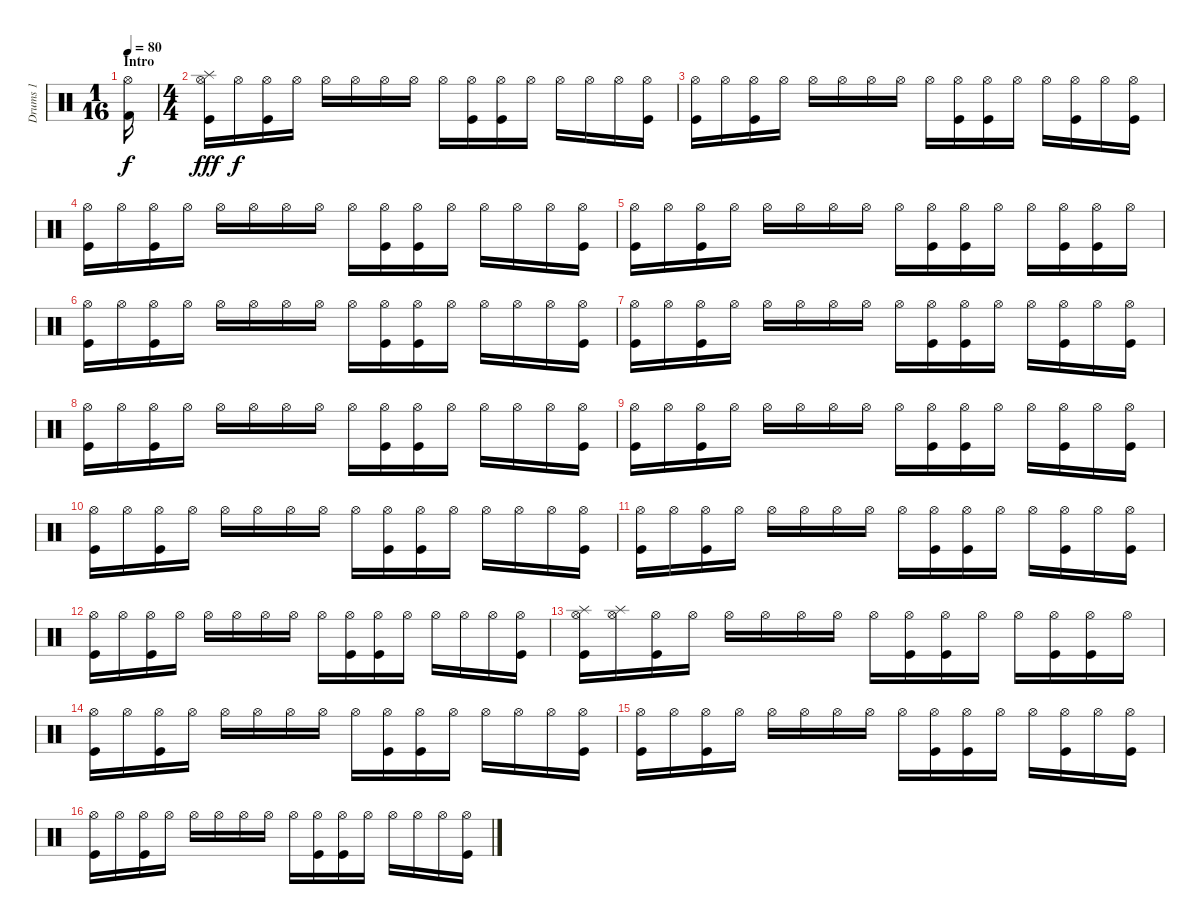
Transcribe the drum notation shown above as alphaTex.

\track ("Drums 1" "Drums 1") {instrument percussion}
\staff {score}
\articulation defaults
\ts (1 16)
\section ("" "Intro")
\tempo 80
\clef neutral
\ks c
("Hi-Hat (open)" "Kick (hit) 2").16{dy f volume 11} |
\ts (4 4)
("Splash (hit)" "Hi-Hat (open)" "Kick (hit)").16{dy fff} "Hi-Hat (open)".16{dy f} ("Hi-Hat (open)" "Kick (hit)").16 "Hi-Hat (open)".16 "Hi-Hat (open)".16 "Hi-Hat (open)".16 "Hi-Hat (open)".16 "Hi-Hat (open)".16 "Hi-Hat (open)".16 ("Hi-Hat (open)" "Kick (hit)").16 ("Hi-Hat (open)" "Kick (hit)").16 "Hi-Hat (open)".16 "Hi-Hat (open)".16 "Hi-Hat (open)".16 "Hi-Hat (open)".16 ("Hi-Hat (open)" "Kick (hit)").16 |
("Hi-Hat (open)" "Kick (hit)").16 "Hi-Hat (open)".16 ("Hi-Hat (open)" "Kick (hit)").16 "Hi-Hat (open)".16 "Hi-Hat (open)".16 "Hi-Hat (open)".16 "Hi-Hat (open)".16 "Hi-Hat (open)".16 "Hi-Hat (open)".16 ("Hi-Hat (open)" "Kick (hit)").16 ("Hi-Hat (open)" "Kick (hit)").16 "Hi-Hat (open)".16 "Hi-Hat (open)".16 ("Hi-Hat (open)" "Kick (hit)").16 "Hi-Hat (open)".16 ("Hi-Hat (open)" "Kick (hit)").16 |
("Hi-Hat (open)" "Kick (hit)").16 "Hi-Hat (open)".16 ("Hi-Hat (open)" "Kick (hit)").16 "Hi-Hat (open)".16 "Hi-Hat (open)".16 "Hi-Hat (open)".16 "Hi-Hat (open)".16 "Hi-Hat (open)".16 "Hi-Hat (open)".16 ("Hi-Hat (open)" "Kick (hit)").16 ("Hi-Hat (open)" "Kick (hit)").16 "Hi-Hat (open)".16 "Hi-Hat (open)".16 "Hi-Hat (open)".16 "Hi-Hat (open)".16 ("Hi-Hat (open)" "Kick (hit)").16 |
("Hi-Hat (open)" "Kick (hit)").16 "Hi-Hat (open)".16 ("Hi-Hat (open)" "Kick (hit)").16 "Hi-Hat (open)".16 "Hi-Hat (open)".16 "Hi-Hat (open)".16 "Hi-Hat (open)".16 "Hi-Hat (open)".16 "Hi-Hat (open)".16 ("Hi-Hat (open)" "Kick (hit)").16 ("Hi-Hat (open)" "Kick (hit)").16 "Hi-Hat (open)".16 "Hi-Hat (open)".16 ("Hi-Hat (open)" "Kick (hit)").16 ("Hi-Hat (open)" "Kick (hit)").16 "Hi-Hat (open)".16 |
("Hi-Hat (open)" "Kick (hit)").16 "Hi-Hat (open)".16 ("Hi-Hat (open)" "Kick (hit)").16 "Hi-Hat (open)".16 "Hi-Hat (open)".16 "Hi-Hat (open)".16 "Hi-Hat (open)".16 "Hi-Hat (open)".16 "Hi-Hat (open)".16 ("Hi-Hat (open)" "Kick (hit)").16 ("Hi-Hat (open)" "Kick (hit)").16 "Hi-Hat (open)".16 "Hi-Hat (open)".16 "Hi-Hat (open)".16 "Hi-Hat (open)".16 ("Hi-Hat (open)" "Kick (hit)").16 |
("Hi-Hat (open)" "Kick (hit)").16 "Hi-Hat (open)".16 ("Hi-Hat (open)" "Kick (hit)").16 "Hi-Hat (open)".16 "Hi-Hat (open)".16 "Hi-Hat (open)".16 "Hi-Hat (open)".16 "Hi-Hat (open)".16 "Hi-Hat (open)".16 ("Hi-Hat (open)" "Kick (hit)").16 ("Hi-Hat (open)" "Kick (hit)").16 "Hi-Hat (open)".16 "Hi-Hat (open)".16 ("Hi-Hat (open)" "Kick (hit)").16 "Hi-Hat (open)".16 ("Hi-Hat (open)" "Kick (hit)").16 |
("Hi-Hat (open)" "Kick (hit)").16 "Hi-Hat (open)".16 ("Hi-Hat (open)" "Kick (hit)").16 "Hi-Hat (open)".16 "Hi-Hat (open)".16 "Hi-Hat (open)".16 "Hi-Hat (open)".16 "Hi-Hat (open)".16 "Hi-Hat (open)".16 ("Hi-Hat (open)" "Kick (hit)").16 ("Hi-Hat (open)" "Kick (hit)").16 "Hi-Hat (open)".16 "Hi-Hat (open)".16 "Hi-Hat (open)".16 "Hi-Hat (open)".16 ("Hi-Hat (open)" "Kick (hit)").16 |
("Hi-Hat (open)" "Kick (hit)").16 "Hi-Hat (open)".16 ("Hi-Hat (open)" "Kick (hit)").16 "Hi-Hat (open)".16 "Hi-Hat (open)".16 "Hi-Hat (open)".16 "Hi-Hat (open)".16 "Hi-Hat (open)".16 "Hi-Hat (open)".16 ("Hi-Hat (open)" "Kick (hit)").16 ("Hi-Hat (open)" "Kick (hit)").16 "Hi-Hat (open)".16 "Hi-Hat (open)".16 ("Hi-Hat (open)" "Kick (hit)").16 "Hi-Hat (open)".16 ("Hi-Hat (open)" "Kick (hit)").16 |
("Hi-Hat (open)" "Kick (hit)").16 "Hi-Hat (open)".16 ("Hi-Hat (open)" "Kick (hit)").16 "Hi-Hat (open)".16 "Hi-Hat (open)".16 "Hi-Hat (open)".16 "Hi-Hat (open)".16 "Hi-Hat (open)".16 "Hi-Hat (open)".16 ("Hi-Hat (open)" "Kick (hit)").16 ("Hi-Hat (open)" "Kick (hit)").16 "Hi-Hat (open)".16 "Hi-Hat (open)".16 "Hi-Hat (open)".16 "Hi-Hat (open)".16 ("Hi-Hat (open)" "Kick (hit)").16 |
("Hi-Hat (open)" "Kick (hit)").16 "Hi-Hat (open)".16 ("Hi-Hat (open)" "Kick (hit)").16 "Hi-Hat (open)".16 "Hi-Hat (open)".16 "Hi-Hat (open)".16 "Hi-Hat (open)".16 "Hi-Hat (open)".16 "Hi-Hat (open)".16 ("Hi-Hat (open)" "Kick (hit)").16 ("Hi-Hat (open)" "Kick (hit)").16 "Hi-Hat (open)".16 "Hi-Hat (open)".16 ("Hi-Hat (open)" "Kick (hit)").16 "Hi-Hat (open)".16 ("Hi-Hat (open)" "Kick (hit)").16 |
("Hi-Hat (open)" "Kick (hit)").16 "Hi-Hat (open)".16 ("Hi-Hat (open)" "Kick (hit)").16 "Hi-Hat (open)".16 "Hi-Hat (open)".16 "Hi-Hat (open)".16 "Hi-Hat (open)".16 "Hi-Hat (open)".16 "Hi-Hat (open)".16 ("Hi-Hat (open)" "Kick (hit)").16 ("Hi-Hat (open)" "Kick (hit)").16 "Hi-Hat (open)".16 "Hi-Hat (open)".16 "Hi-Hat (open)".16 "Hi-Hat (open)".16 ("Hi-Hat (open)" "Kick (hit)").16 |
("Splash (hit)" "Hi-Hat (open)" "Kick (hit)").16 ("Splash (hit)" "Hi-Hat (open)").16 ("Hi-Hat (open)" "Kick (hit)").16 "Hi-Hat (open)".16 "Hi-Hat (open)".16 "Hi-Hat (open)".16 "Hi-Hat (open)".16 "Hi-Hat (open)".16 "Hi-Hat (open)".16 ("Hi-Hat (open)" "Kick (hit)").16 ("Hi-Hat (open)" "Kick (hit)").16 "Hi-Hat (open)".16 "Hi-Hat (open)".16 ("Hi-Hat (open)" "Kick (hit)").16 ("Hi-Hat (open)" "Kick (hit)").16 "Hi-Hat (open)".16 |
("Hi-Hat (open)" "Kick (hit)").16 "Hi-Hat (open)".16 ("Hi-Hat (open)" "Kick (hit)").16 "Hi-Hat (open)".16 "Hi-Hat (open)".16 "Hi-Hat (open)".16 "Hi-Hat (open)".16 "Hi-Hat (open)".16 "Hi-Hat (open)".16 ("Hi-Hat (open)" "Kick (hit)").16 ("Hi-Hat (open)" "Kick (hit)").16 "Hi-Hat (open)".16 "Hi-Hat (open)".16 "Hi-Hat (open)".16 "Hi-Hat (open)".16 ("Hi-Hat (open)" "Kick (hit)").16 |
("Hi-Hat (open)" "Kick (hit)").16 "Hi-Hat (open)".16 ("Hi-Hat (open)" "Kick (hit)").16 "Hi-Hat (open)".16 "Hi-Hat (open)".16 "Hi-Hat (open)".16 "Hi-Hat (open)".16 "Hi-Hat (open)".16 "Hi-Hat (open)".16 ("Hi-Hat (open)" "Kick (hit)").16 ("Hi-Hat (open)" "Kick (hit)").16 "Hi-Hat (open)".16 "Hi-Hat (open)".16 ("Hi-Hat (open)" "Kick (hit)").16 "Hi-Hat (open)".16 ("Hi-Hat (open)" "Kick (hit)").16 |
("Hi-Hat (open)" "Kick (hit)").16 "Hi-Hat (open)".16 ("Hi-Hat (open)" "Kick (hit)").16 "Hi-Hat (open)".16 "Hi-Hat (open)".16 "Hi-Hat (open)".16 "Hi-Hat (open)".16 "Hi-Hat (open)".16 "Hi-Hat (open)".16 ("Hi-Hat (open)" "Kick (hit)").16 ("Hi-Hat (open)" "Kick (hit)").16 "Hi-Hat (open)".16 "Hi-Hat (open)".16 "Hi-Hat (open)".16 "Hi-Hat (open)".16 ("Hi-Hat (open)" "Kick (hit)").16
